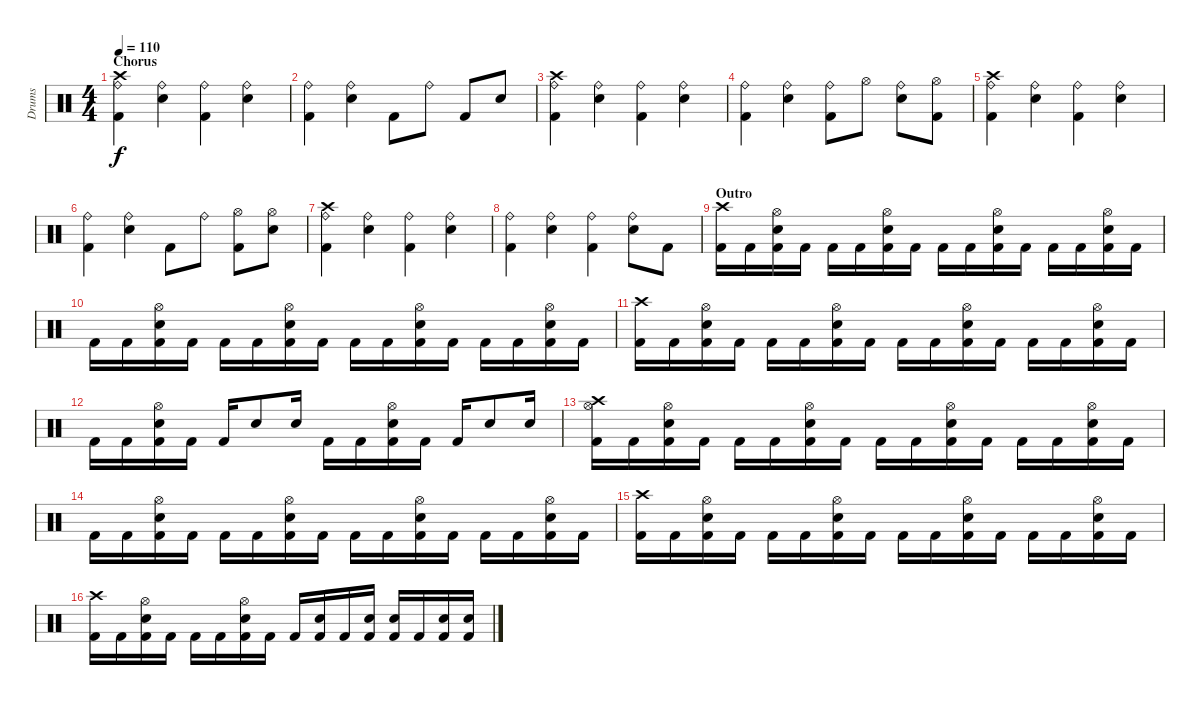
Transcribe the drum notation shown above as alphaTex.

\track ("Drums" "Drums") {instrument percussion}
\staff {score}
\articulation defaults
\ts (4 4)
\section ("" "Chorus")
\tempo 110
\clef neutral
\ks c
("Ride (bell)" "Kick (hit) 2" "Crash high (hit)").4{dy f} ("Ride (bell)" "Electric Snare (hit)").4 ("Ride (bell)" "Kick (hit) 2").4 ("Ride (bell)" "Electric Snare (hit)").4 |
("Kick (hit) 2" "Ride (bell)").4 ("Electric Snare (hit)" "Ride (bell)").4 "Kick (hit) 2".8 "Ride (bell)".8 "Kick (hit) 2".8 "Electric Snare (hit)".8 |
("Ride (bell)" "Kick (hit) 2" "Crash high (hit)").4 ("Ride (bell)" "Electric Snare (hit)").4 ("Ride (bell)" "Kick (hit) 2").4 ("Ride (bell)" "Electric Snare (hit)").4 |
("Ride (bell)" "Kick (hit) 2").4 ("Ride (bell)" "Electric Snare (hit)").4 ("Ride (bell)" "Kick (hit) 2").8 "Hi-Hat (open)".8 ("Ride (bell)" "Electric Snare (hit)").8 ("Hi-Hat (open)" "Kick (hit) 2").8 |
("Ride (bell)" "Kick (hit) 2" "Crash high (hit)").4 ("Ride (bell)" "Electric Snare (hit)").4 ("Ride (bell)" "Kick (hit) 2").4 ("Ride (bell)" "Electric Snare (hit)").4 |
("Kick (hit) 2" "Ride (bell)").4 ("Electric Snare (hit)" "Ride (bell)").4 "Kick (hit) 2".8 "Ride (bell)".8 ("Kick (hit) 2" "Hi-Hat (open)").8 ("Electric Snare (hit)" "Hi-Hat (open)").8 |
("Ride (bell)" "Kick (hit) 2" "Crash high (hit)").4 ("Ride (bell)" "Electric Snare (hit)").4 ("Ride (bell)" "Kick (hit) 2").4 ("Ride (bell)" "Electric Snare (hit)").4 |
("Ride (bell)" "Kick (hit) 2").4 ("Ride (bell)" "Electric Snare (hit)").4 ("Ride (bell)" "Kick (hit) 2").4 ("Ride (bell)" "Electric Snare (hit)").8 "Kick (hit) 2".8 |
\section ("" "Outro")
("Kick (hit) 2" "Crash high (hit)").16 "Kick (hit) 2".16 ("Kick (hit) 2" "Electric Snare (hit)" "Hi-Hat (open)").16 "Kick (hit) 2".16 "Kick (hit) 2".16 "Kick (hit) 2".16 ("Kick (hit) 2" "Electric Snare (hit)" "Hi-Hat (open)").16 "Kick (hit) 2".16 "Kick (hit) 2".16 "Kick (hit) 2".16 ("Kick (hit) 2" "Electric Snare (hit)" "Hi-Hat (open)").16 "Kick (hit) 2".16 "Kick (hit) 2".16 "Kick (hit) 2".16 ("Kick (hit) 2" "Electric Snare (hit)" "Hi-Hat (open)").16 "Kick (hit) 2".16 |
"Kick (hit) 2".16 "Kick (hit) 2".16 ("Kick (hit) 2" "Electric Snare (hit)" "Hi-Hat (open)").16 "Kick (hit) 2".16 "Kick (hit) 2".16 "Kick (hit) 2".16 ("Kick (hit) 2" "Electric Snare (hit)" "Hi-Hat (open)").16 "Kick (hit) 2".16 "Kick (hit) 2".16 "Kick (hit) 2".16 ("Kick (hit) 2" "Electric Snare (hit)" "Hi-Hat (open)").16 "Kick (hit) 2".16 "Kick (hit) 2".16 "Kick (hit) 2".16 ("Kick (hit) 2" "Electric Snare (hit)" "Hi-Hat (open)").16 "Kick (hit) 2".16 |
("Kick (hit) 2" "Crash high (hit)").16 "Kick (hit) 2".16 ("Kick (hit) 2" "Electric Snare (hit)" "Hi-Hat (open)").16 "Kick (hit) 2".16 "Kick (hit) 2".16 "Kick (hit) 2".16 ("Kick (hit) 2" "Electric Snare (hit)" "Hi-Hat (open)").16 "Kick (hit) 2".16 "Kick (hit) 2".16 "Kick (hit) 2".16 ("Kick (hit) 2" "Electric Snare (hit)" "Hi-Hat (open)").16 "Kick (hit) 2".16 "Kick (hit) 2".16 "Kick (hit) 2".16 ("Kick (hit) 2" "Electric Snare (hit)" "Hi-Hat (open)").16 "Kick (hit) 2".16 |
"Kick (hit) 2".16 "Kick (hit) 2".16 ("Kick (hit) 2" "Electric Snare (hit)" "Hi-Hat (open)").16 "Kick (hit) 2".16 "Kick (hit) 2".16 "Electric Snare (hit)".8 "Electric Snare (hit)".16 "Kick (hit) 2".16 "Kick (hit) 2".16 ("Kick (hit) 2" "Electric Snare (hit)" "Hi-Hat (open)").16 "Kick (hit) 2".16 "Kick (hit) 2".16 "Electric Snare (hit)".8 "Electric Snare (hit)".16 |
("Kick (hit) 2" "Hi-Hat (open)" "Crash high (hit)").16 "Kick (hit) 2".16 ("Kick (hit) 2" "Electric Snare (hit)" "Hi-Hat (open)").16 "Kick (hit) 2".16 "Kick (hit) 2".16 "Kick (hit) 2".16 ("Kick (hit) 2" "Electric Snare (hit)" "Hi-Hat (open)").16 "Kick (hit) 2".16 "Kick (hit) 2".16 "Kick (hit) 2".16 ("Kick (hit) 2" "Electric Snare (hit)" "Hi-Hat (open)").16 "Kick (hit) 2".16 "Kick (hit) 2".16 "Kick (hit) 2".16 ("Kick (hit) 2" "Electric Snare (hit)" "Hi-Hat (open)").16 "Kick (hit) 2".16 |
"Kick (hit) 2".16 "Kick (hit) 2".16 ("Kick (hit) 2" "Electric Snare (hit)" "Hi-Hat (open)").16 "Kick (hit) 2".16 "Kick (hit) 2".16 "Kick (hit) 2".16 ("Kick (hit) 2" "Electric Snare (hit)" "Hi-Hat (open)").16 "Kick (hit) 2".16 "Kick (hit) 2".16 "Kick (hit) 2".16 ("Kick (hit) 2" "Electric Snare (hit)" "Hi-Hat (open)").16 "Kick (hit) 2".16 "Kick (hit) 2".16 "Kick (hit) 2".16 ("Kick (hit) 2" "Electric Snare (hit)" "Hi-Hat (open)").16 "Kick (hit) 2".16 |
("Kick (hit) 2" "Crash high (hit)").16 "Kick (hit) 2".16 ("Kick (hit) 2" "Electric Snare (hit)" "Hi-Hat (open)").16 "Kick (hit) 2".16 "Kick (hit) 2".16 "Kick (hit) 2".16 ("Kick (hit) 2" "Electric Snare (hit)" "Hi-Hat (open)").16 "Kick (hit) 2".16 "Kick (hit) 2".16 "Kick (hit) 2".16 ("Kick (hit) 2" "Electric Snare (hit)" "Hi-Hat (open)").16 "Kick (hit) 2".16 "Kick (hit) 2".16 "Kick (hit) 2".16 ("Kick (hit) 2" "Electric Snare (hit)" "Hi-Hat (open)").16 "Kick (hit) 2".16 |
("Kick (hit) 2" "Crash high (hit)").16 "Kick (hit) 2".16 ("Kick (hit) 2" "Electric Snare (hit)" "Hi-Hat (open)").16 "Kick (hit) 2".16 "Kick (hit) 2".16 "Kick (hit) 2".16 ("Kick (hit) 2" "Electric Snare (hit)" "Hi-Hat (open)").16 "Kick (hit) 2".16 "Kick (hit) 2".16 ("Kick (hit) 2" "Electric Snare (hit)").16 "Kick (hit) 2".16 ("Kick (hit) 2" "Electric Snare (hit)").16 ("Kick (hit) 2" "Electric Snare (hit)").16 "Kick (hit) 2".16 ("Kick (hit) 2" "Electric Snare (hit)").16 ("Kick (hit) 2" "Electric Snare (hit)").16
